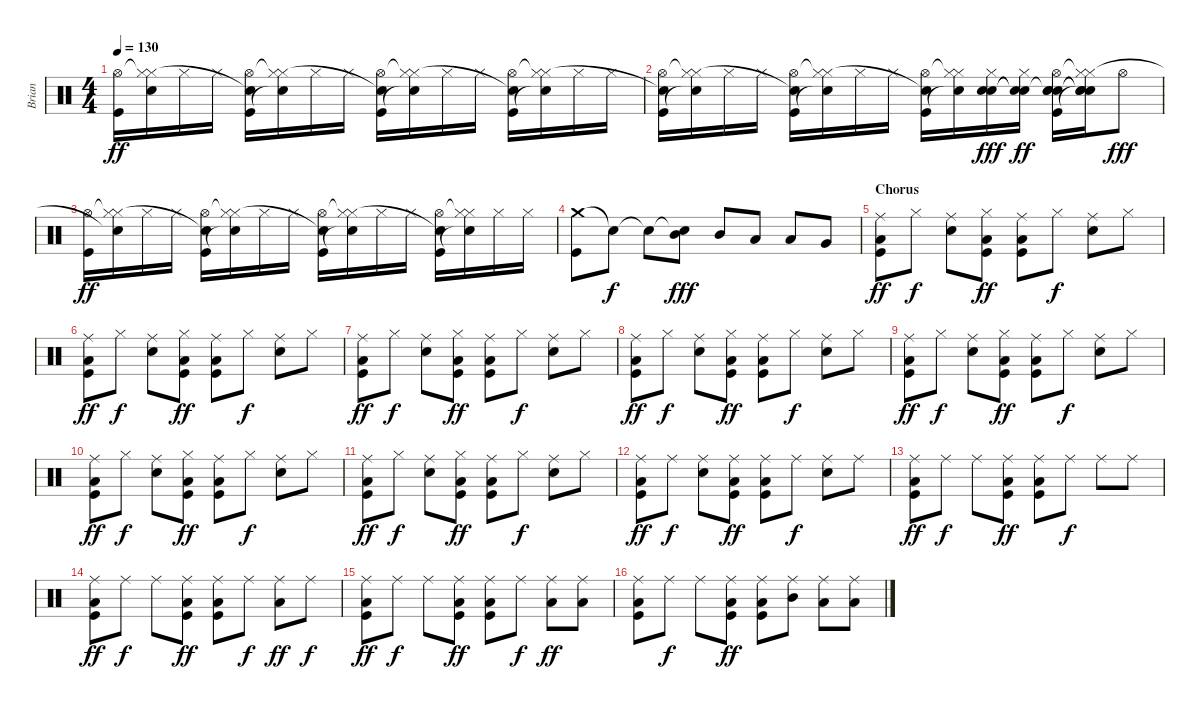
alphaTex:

\track ("Brian" "Brian") {instrument percussion}
\staff {score}
\articulation defaults
\ts (4 4)
\tempo 130
\clef neutral
\ks c
("Hi-Hat (open)" "Kick (hit)").16{dy ff} ("Hi-Hat (closed)"{t} "Hi-Hat (closed)" "Snare (hit)"{t}).16 "Hi-Hat (closed)".16 "Hi-Hat (closed)".16 ("Hi-Hat (open)" "Snare (hit)"{t} "Kick (hit)").16 ("Hi-Hat (closed)"{t} "Hi-Hat (closed)" "Snare (hit)"{t}).16 "Hi-Hat (closed)".16 "Hi-Hat (closed)".16 ("Hi-Hat (open)" "Snare (hit)"{t} "Kick (hit)").16 ("Hi-Hat (closed)"{t} "Hi-Hat (closed)" "Snare (hit)"{t}).16 "Hi-Hat (closed)".16 "Hi-Hat (closed)".16 ("Hi-Hat (open)" "Snare (hit)"{t} "Kick (hit)").16 ("Hi-Hat (closed)"{t} "Hi-Hat (closed)" "Snare (hit)"{t}).16 "Hi-Hat (closed)".16 "Hi-Hat (closed)".16 |
("Hi-Hat (open)" "Snare (hit)"{t} "Kick (hit)").16 ("Hi-Hat (closed)"{t} "Hi-Hat (closed)" "Snare (hit)"{t}).16 "Hi-Hat (closed)".16 "Hi-Hat (closed)".16 ("Hi-Hat (open)" "Snare (hit)"{t} "Kick (hit)").16 ("Hi-Hat (closed)"{t} "Hi-Hat (closed)" "Snare (hit)"{t}).16 "Hi-Hat (closed)".16 "Hi-Hat (closed)".16 ("Hi-Hat (open)" "Snare (hit)"{t} "Kick (hit)").16 ("Hi-Hat (closed)"{t} "Hi-Hat (closed)" "Snare (hit)"{t}).16 ("Hand Clap (hit)" "Hi-Hat (closed)" "Hand Clap (hit)").16{dy fff} ("Snare (hit)"{t} "Hi-Hat (closed)" "Snare (hit)"{t}).16{dy ff} ("Hand Clap (hit)" "Hi-Hat (open)" "Snare (hit)"{t} "Hand Clap (hit)" "Kick (hit)").16 ("Snare (hit)"{t} "Hi-Hat (closed)"{t} "Hi-Hat (closed)" "Snare (hit)"{t} "Snare (hit)"{t}).16 "Hi-Hat (open)".8{dy fff} |
("Hi-Hat (open)" "Kick (hit)").16{dy ff} ("Hi-Hat (closed)"{t} "Hi-Hat (closed)" "Snare (hit)"{t}).16 "Hi-Hat (closed)".16 "Hi-Hat (closed)".16 ("Hi-Hat (open)" "Snare (hit)"{t} "Kick (hit)").16 ("Hi-Hat (closed)"{t} "Hi-Hat (closed)" "Snare (hit)"{t}).16 "Hi-Hat (closed)".16 "Hi-Hat (closed)".16 ("Hi-Hat (open)" "Snare (hit)"{t} "Kick (hit)").16 ("Hi-Hat (closed)"{t} "Hi-Hat (closed)" "Snare (hit)"{t}).16 "Hi-Hat (closed)".16 "Hi-Hat (closed)".16 ("Hi-Hat (open)" "Snare (hit)"{t} "Kick (hit)").16 ("Hi-Hat (closed)"{t} "Hi-Hat (closed)" "Snare (hit)"{t}).16 "Hi-Hat (closed)".16 "Hi-Hat (closed)".16 |
("Crash medium (hit)" "Kick (hit)").8 "Snare (hit)"{t}.8{dy f} "Snare (hit)"{t}.8 ("Snare (hit)"{t} "Mid Tom (hit)").8{dy fff} "Mid Tom (hit)".8 "Low Tom (hit)".8 "Low Tom (hit)".8 "Very Low Tom (hit)".8 |
\section ("" "Chorus")
("Ride (middle)" "Low Tom (hit)" "Kick (hit)").8{dy ff} "Hi-Hat (closed)".8{dy f} ("Ride (middle)" "Electric Snare (hit)").8 ("Hi-Hat (closed)" "Low Tom (hit)" "Kick (hit)").8{dy ff} ("Ride (middle)" "Low Tom (hit)" "Kick (hit)").8 "Hi-Hat (closed)".8{dy f} ("Ride (middle)" "Electric Snare (hit)").8 "Hi-Hat (closed)".8 |
("Ride (middle)" "Low Tom (hit)" "Kick (hit)").8{dy ff} "Hi-Hat (closed)".8{dy f} ("Ride (middle)" "Electric Snare (hit)").8 ("Hi-Hat (closed)" "Low Tom (hit)" "Kick (hit)").8{dy ff} ("Ride (middle)" "Low Tom (hit)" "Kick (hit)").8 "Hi-Hat (closed)".8{dy f} ("Ride (middle)" "Electric Snare (hit)").8 "Hi-Hat (closed)".8 |
("Ride (middle)" "Low Tom (hit)" "Kick (hit)").8{dy ff} "Hi-Hat (closed)".8{dy f} ("Ride (middle)" "Electric Snare (hit)").8 ("Hi-Hat (closed)" "Low Tom (hit)" "Kick (hit)").8{dy ff} ("Ride (middle)" "Low Tom (hit)" "Kick (hit)").8 "Hi-Hat (closed)".8{dy f} ("Ride (middle)" "Electric Snare (hit)").8 "Hi-Hat (closed)".8 |
("Ride (middle)" "Low Tom (hit)" "Kick (hit)").8{dy ff} "Hi-Hat (closed)".8{dy f} ("Ride (middle)" "Electric Snare (hit)").8 ("Hi-Hat (closed)" "Low Tom (hit)" "Kick (hit)").8{dy ff} ("Ride (middle)" "Low Tom (hit)" "Kick (hit)").8 "Hi-Hat (closed)".8{dy f} ("Ride (middle)" "Electric Snare (hit)").8 "Hi-Hat (closed)".8 |
("Ride (middle)" "Low Tom (hit)" "Kick (hit)").8{dy ff} "Hi-Hat (closed)".8{dy f} ("Ride (middle)" "Electric Snare (hit)").8 ("Hi-Hat (closed)" "Low Tom (hit)" "Kick (hit)").8{dy ff} ("Ride (middle)" "Low Tom (hit)" "Kick (hit)").8 "Hi-Hat (closed)".8{dy f} ("Ride (middle)" "Electric Snare (hit)").8 "Hi-Hat (closed)".8 |
("Ride (middle)" "Low Tom (hit)" "Kick (hit)").8{dy ff} "Hi-Hat (closed)".8{dy f} ("Ride (middle)" "Electric Snare (hit)").8 ("Hi-Hat (closed)" "Low Tom (hit)" "Kick (hit)").8{dy ff} ("Ride (middle)" "Low Tom (hit)" "Kick (hit)").8 "Hi-Hat (closed)".8{dy f} ("Ride (middle)" "Electric Snare (hit)").8 "Hi-Hat (closed)".8 |
("Ride (middle)" "Low Tom (hit)" "Kick (hit)").8{dy ff} "Hi-Hat (closed)".8{dy f} ("Ride (middle)" "Electric Snare (hit)").8 ("Hi-Hat (closed)" "Low Tom (hit)" "Kick (hit)").8{dy ff} ("Ride (middle)" "Low Tom (hit)" "Kick (hit)").8 "Hi-Hat (closed)".8{dy f} ("Ride (middle)" "Electric Snare (hit)").8 "Hi-Hat (closed)".8 |
("Ride (middle)" "Low Tom (hit)" "Kick (hit)").8{dy ff} "Ride (middle)".8{dy f} ("Ride (middle)" "Electric Snare (hit)").8 ("Ride (middle)" "Low Tom (hit)" "Kick (hit)").8{dy ff} ("Ride (middle)" "Low Tom (hit)" "Kick (hit)").8 "Ride (middle)".8{dy f} ("Ride (middle)" "Electric Snare (hit)").8 "Ride (middle)".8 |
("Ride (middle)" "Low Tom (hit)" "Kick (hit)").8{dy ff} "Ride (middle)".8{dy f} "Ride (middle)".8 ("Ride (middle)" "Low Tom (hit)" "Kick (hit)").8{dy ff} ("Ride (middle)" "Low Tom (hit)" "Kick (hit)").8 "Ride (middle)".8{dy f} "Ride (middle)".8 "Ride (middle)".8 |
("Ride (middle)" "Low Tom (hit)" "Kick (hit)").8{dy ff} "Ride (middle)".8{dy f} "Ride (middle)".8 ("Ride (middle)" "Low Tom (hit)" "Kick (hit)").8{dy ff} ("Ride (middle)" "Low Tom (hit)" "Kick (hit)").8 "Ride (middle)".8{dy f} ("Ride (middle)" "Low Tom (hit)").8{dy ff} "Ride (middle)".8{dy f} |
("Ride (middle)" "Low Tom (hit)" "Kick (hit)").8{dy ff} "Ride (middle)".8{dy f} "Ride (middle)".8 ("Ride (middle)" "Low Tom (hit)" "Kick (hit)").8{dy ff} ("Ride (middle)" "Low Tom (hit)" "Kick (hit)").8 "Ride (middle)".8{dy f} ("Ride (middle)" "Low Tom (hit)").8{dy ff} ("Ride (middle)" "Low Tom (hit)").8 |
("Ride (middle)" "Low Tom (hit)" "Kick (hit)").8 "Ride (middle)".8{dy f} "Ride (middle)".8 ("Ride (middle)" "Low Tom (hit)" "Kick (hit)").8{dy ff} ("Ride (middle)" "Low Tom (hit)" "Kick (hit)").8 ("Ride (middle)" "Mid Tom (hit)").8 ("Ride (middle)" "Low Tom (hit)").8 ("Ride (middle)" "Low Tom (hit)").8
